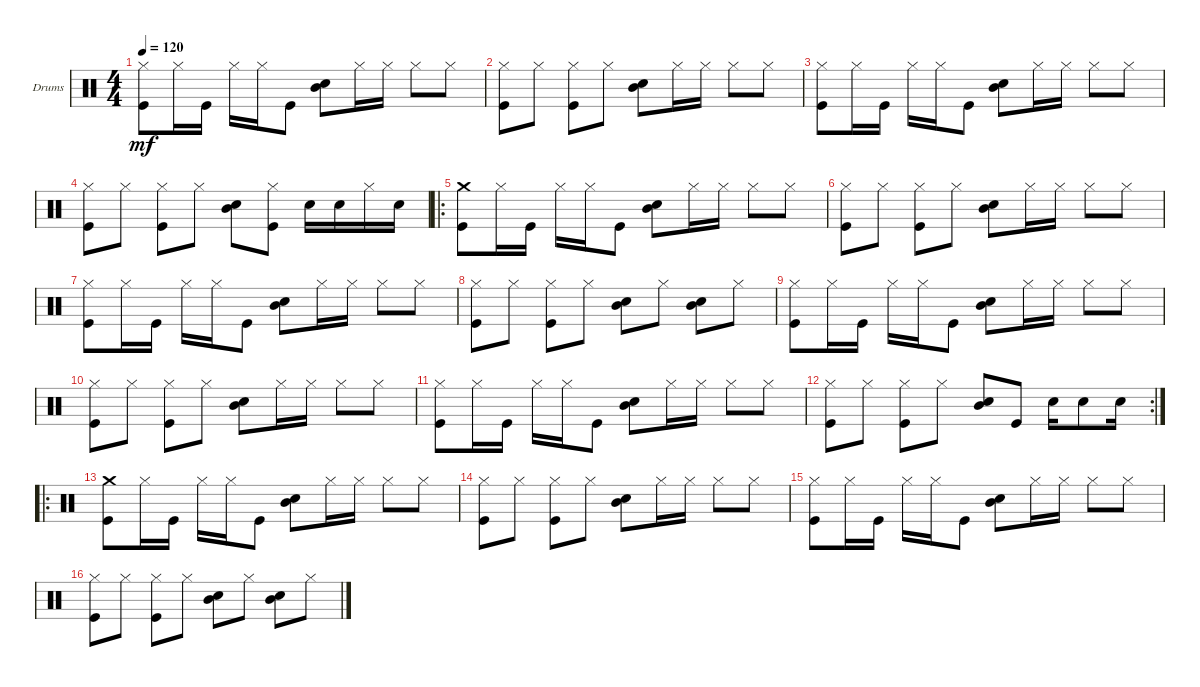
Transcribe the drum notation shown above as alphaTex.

\defaultSystemsLayout 4
\bracketExtendMode groupsimilarinstruments
\firstSystemTrackNameOrientation horizontal
\otherSystemsTrackNameOrientation horizontal
\track ("Drumkit" "Drums") {instrument percussion}
\staff {score}
\articulation defaults
\ts (4 4)
\tempo 120
\clef neutral
\ks c
("Kick (hit)" "Hi-Hat (closed)").8{dy mf} "Hi-Hat (closed)".16 "Kick (hit)".16 "Hi-Hat (closed)".16 "Hi-Hat (closed)".16 "Kick (hit)".8 ("Snare (hit) 2" "Mid Tom (hit)").8 "Hi-Hat (closed)".16 "Hi-Hat (closed)".16 "Hi-Hat (closed)".8 "Hi-Hat (closed)".8 |
("Kick (hit)" "Hi-Hat (closed)").8 "Hi-Hat (closed)".8 ("Kick (hit)" "Hi-Hat (closed)").8 "Hi-Hat (closed)".8 ("Snare (hit) 2" "Mid Tom (hit)").8 "Hi-Hat (closed)".16 "Hi-Hat (closed)".16 "Hi-Hat (closed)".8 "Hi-Hat (closed)".8 |
("Kick (hit)" "Hi-Hat (closed)").8 "Hi-Hat (closed)".16 "Kick (hit)".16 "Hi-Hat (closed)".16 "Hi-Hat (closed)".16 "Kick (hit)".8 ("Snare (hit) 2" "Mid Tom (hit)").8 "Hi-Hat (closed)".16 "Hi-Hat (closed)".16 "Hi-Hat (closed)".8 "Hi-Hat (closed)".8 |
("Kick (hit)" "Hi-Hat (closed)").8 "Hi-Hat (closed)".8 ("Kick (hit)" "Hi-Hat (closed)").8 "Hi-Hat (closed)".8 ("Snare (hit) 2" "Mid Tom (hit)").8 ("Hi-Hat (closed)" "Kick (hit)").8 "Snare (hit) 2".16 "Snare (hit) 2".16 "Hi-Hat (closed)".16 "Snare (hit) 2".16 |
\ro
("Kick (hit)" "Crash medium (hit)").8 "Hi-Hat (closed)".16 "Kick (hit)".16 "Hi-Hat (closed)".16 "Hi-Hat (closed)".16 "Kick (hit)".8 ("Snare (hit) 2" "Mid Tom (hit)").8 "Hi-Hat (closed)".16 "Hi-Hat (closed)".16 "Hi-Hat (closed)".8 "Hi-Hat (closed)".8 |
("Kick (hit)" "Hi-Hat (closed)").8 "Hi-Hat (closed)".8 ("Kick (hit)" "Hi-Hat (closed)").8 "Hi-Hat (closed)".8 ("Snare (hit) 2" "Mid Tom (hit)").8 "Hi-Hat (closed)".16 "Hi-Hat (closed)".16 "Hi-Hat (closed)".8 "Hi-Hat (closed)".8 |
("Kick (hit)" "Hi-Hat (closed)").8 "Hi-Hat (closed)".16 "Kick (hit)".16 "Hi-Hat (closed)".16 "Hi-Hat (closed)".16 "Kick (hit)".8 ("Snare (hit) 2" "Mid Tom (hit)").8 "Hi-Hat (closed)".16 "Hi-Hat (closed)".16 "Hi-Hat (closed)".8 "Hi-Hat (closed)".8 |
("Kick (hit)" "Hi-Hat (closed)").8 "Hi-Hat (closed)".8 ("Kick (hit)" "Hi-Hat (closed)").8 "Hi-Hat (closed)".8 ("Snare (hit) 2" "Mid Tom (hit)").8 "Hi-Hat (closed)".8 ("Snare (hit) 2" "Mid Tom (hit)").8 "Hi-Hat (closed)".8 |
("Kick (hit)" "Hi-Hat (closed)").8 "Hi-Hat (closed)".16 "Kick (hit)".16 "Hi-Hat (closed)".16 "Hi-Hat (closed)".16 "Kick (hit)".8 ("Snare (hit) 2" "Mid Tom (hit)").8 "Hi-Hat (closed)".16 "Hi-Hat (closed)".16 "Hi-Hat (closed)".8 "Hi-Hat (closed)".8 |
("Kick (hit)" "Hi-Hat (closed)").8 "Hi-Hat (closed)".8 ("Kick (hit)" "Hi-Hat (closed)").8 "Hi-Hat (closed)".8 ("Snare (hit) 2" "Mid Tom (hit)").8 "Hi-Hat (closed)".16 "Hi-Hat (closed)".16 "Hi-Hat (closed)".8 "Hi-Hat (closed)".8 |
("Kick (hit)" "Hi-Hat (closed)").8 "Hi-Hat (closed)".16 "Kick (hit)".16 "Hi-Hat (closed)".16 "Hi-Hat (closed)".16 "Kick (hit)".8 ("Snare (hit) 2" "Mid Tom (hit)").8 "Hi-Hat (closed)".16 "Hi-Hat (closed)".16 "Hi-Hat (closed)".8 "Hi-Hat (closed)".8 |
\rc 2
("Kick (hit)" "Hi-Hat (closed)").8 "Hi-Hat (closed)".8 ("Kick (hit)" "Hi-Hat (closed)").8 "Hi-Hat (closed)".8 ("Snare (hit) 2" "Mid Tom (hit)").8 "Kick (hit)".8 "Snare (hit) 2".16 "Snare (hit) 2".8 "Snare (hit) 2".16 |
\ro
("Kick (hit)" "Crash medium (hit)").8 "Hi-Hat (closed)".16 "Kick (hit)".16 "Hi-Hat (closed)".16 "Hi-Hat (closed)".16 "Kick (hit)".8 ("Snare (hit) 2" "Mid Tom (hit)").8 "Hi-Hat (closed)".16 "Hi-Hat (closed)".16 "Hi-Hat (closed)".8 "Hi-Hat (closed)".8 |
("Kick (hit)" "Hi-Hat (closed)").8 "Hi-Hat (closed)".8 ("Kick (hit)" "Hi-Hat (closed)").8 "Hi-Hat (closed)".8 ("Snare (hit) 2" "Mid Tom (hit)").8 "Hi-Hat (closed)".16 "Hi-Hat (closed)".16 "Hi-Hat (closed)".8 "Hi-Hat (closed)".8 |
("Kick (hit)" "Hi-Hat (closed)").8 "Hi-Hat (closed)".16 "Kick (hit)".16 "Hi-Hat (closed)".16 "Hi-Hat (closed)".16 "Kick (hit)".8 ("Snare (hit) 2" "Mid Tom (hit)").8 "Hi-Hat (closed)".16 "Hi-Hat (closed)".16 "Hi-Hat (closed)".8 "Hi-Hat (closed)".8 |
("Kick (hit)" "Hi-Hat (closed)").8 "Hi-Hat (closed)".8 ("Kick (hit)" "Hi-Hat (closed)").8 "Hi-Hat (closed)".8 ("Snare (hit) 2" "Mid Tom (hit)").8 "Hi-Hat (closed)".8 ("Snare (hit) 2" "Mid Tom (hit)").8 "Hi-Hat (closed)".8
